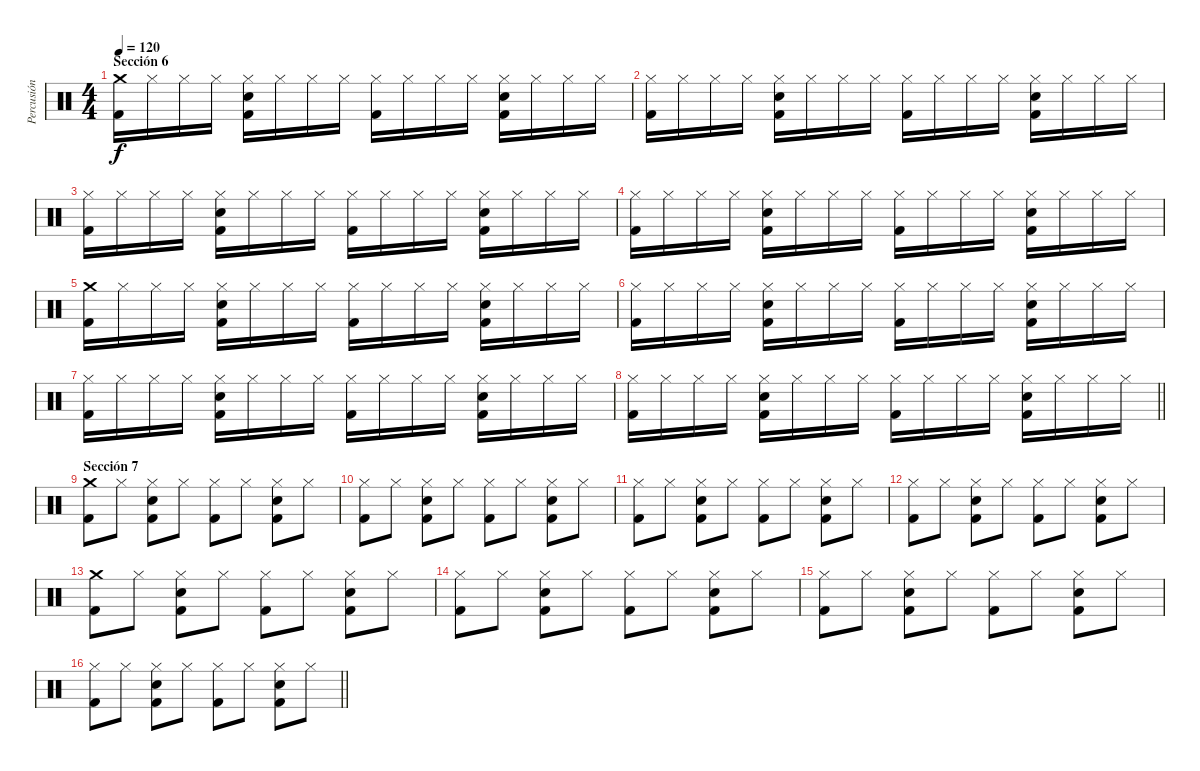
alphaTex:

\track ("Percusión" "Percusión") {instrument percussion}
\staff {score}
\articulation defaults
\ts (4 4)
\section ("" "Sección 6")
\tempo 120
\clef neutral
\ks c
("Kick (hit) 2" "Crash medium (hit)").16{dy f} "Hi-Hat (closed)".16 "Hi-Hat (closed)".16 "Hi-Hat (closed)".16 ("Kick (hit) 2" "Hi-Hat (closed)" "Electric Snare (hit)").16 "Hi-Hat (closed)".16 "Hi-Hat (closed)".16 "Hi-Hat (closed)".16 ("Kick (hit) 2" "Hi-Hat (closed)").16 "Hi-Hat (closed)".16 "Hi-Hat (closed)".16 "Hi-Hat (closed)".16 ("Kick (hit) 2" "Hi-Hat (closed)" "Electric Snare (hit)").16 "Hi-Hat (closed)".16 "Hi-Hat (closed)".16 "Hi-Hat (closed)".16 |
("Kick (hit) 2" "Hi-Hat (closed)").16 "Hi-Hat (closed)".16 "Hi-Hat (closed)".16 "Hi-Hat (closed)".16 ("Kick (hit) 2" "Hi-Hat (closed)" "Electric Snare (hit)").16 "Hi-Hat (closed)".16 "Hi-Hat (closed)".16 "Hi-Hat (closed)".16 ("Kick (hit) 2" "Hi-Hat (closed)").16 "Hi-Hat (closed)".16 "Hi-Hat (closed)".16 "Hi-Hat (closed)".16 ("Kick (hit) 2" "Hi-Hat (closed)" "Electric Snare (hit)").16 "Hi-Hat (closed)".16 "Hi-Hat (closed)".16 "Hi-Hat (closed)".16 |
("Kick (hit) 2" "Hi-Hat (closed)").16 "Hi-Hat (closed)".16 "Hi-Hat (closed)".16 "Hi-Hat (closed)".16 ("Kick (hit) 2" "Hi-Hat (closed)" "Electric Snare (hit)").16 "Hi-Hat (closed)".16 "Hi-Hat (closed)".16 "Hi-Hat (closed)".16 ("Kick (hit) 2" "Hi-Hat (closed)").16 "Hi-Hat (closed)".16 "Hi-Hat (closed)".16 "Hi-Hat (closed)".16 ("Kick (hit) 2" "Hi-Hat (closed)" "Electric Snare (hit)").16 "Hi-Hat (closed)".16 "Hi-Hat (closed)".16 "Hi-Hat (closed)".16 |
("Kick (hit) 2" "Hi-Hat (closed)").16 "Hi-Hat (closed)".16 "Hi-Hat (closed)".16 "Hi-Hat (closed)".16 ("Kick (hit) 2" "Hi-Hat (closed)" "Electric Snare (hit)").16 "Hi-Hat (closed)".16 "Hi-Hat (closed)".16 "Hi-Hat (closed)".16 ("Kick (hit) 2" "Hi-Hat (closed)").16 "Hi-Hat (closed)".16 "Hi-Hat (closed)".16 "Hi-Hat (closed)".16 ("Kick (hit) 2" "Hi-Hat (closed)" "Electric Snare (hit)").16 "Hi-Hat (closed)".16 "Hi-Hat (closed)".16 "Hi-Hat (closed)".16 |
("Kick (hit) 2" "Crash medium (hit)").16 "Hi-Hat (closed)".16 "Hi-Hat (closed)".16 "Hi-Hat (closed)".16 ("Kick (hit) 2" "Hi-Hat (closed)" "Electric Snare (hit)").16 "Hi-Hat (closed)".16 "Hi-Hat (closed)".16 "Hi-Hat (closed)".16 ("Kick (hit) 2" "Hi-Hat (closed)").16 "Hi-Hat (closed)".16 "Hi-Hat (closed)".16 "Hi-Hat (closed)".16 ("Kick (hit) 2" "Hi-Hat (closed)" "Electric Snare (hit)").16 "Hi-Hat (closed)".16 "Hi-Hat (closed)".16 "Hi-Hat (closed)".16 |
("Kick (hit) 2" "Hi-Hat (closed)").16 "Hi-Hat (closed)".16 "Hi-Hat (closed)".16 "Hi-Hat (closed)".16 ("Kick (hit) 2" "Hi-Hat (closed)" "Electric Snare (hit)").16 "Hi-Hat (closed)".16 "Hi-Hat (closed)".16 "Hi-Hat (closed)".16 ("Kick (hit) 2" "Hi-Hat (closed)").16 "Hi-Hat (closed)".16 "Hi-Hat (closed)".16 "Hi-Hat (closed)".16 ("Kick (hit) 2" "Hi-Hat (closed)" "Electric Snare (hit)").16 "Hi-Hat (closed)".16 "Hi-Hat (closed)".16 "Hi-Hat (closed)".16 |
("Kick (hit) 2" "Hi-Hat (closed)").16 "Hi-Hat (closed)".16 "Hi-Hat (closed)".16 "Hi-Hat (closed)".16 ("Kick (hit) 2" "Hi-Hat (closed)" "Electric Snare (hit)").16 "Hi-Hat (closed)".16 "Hi-Hat (closed)".16 "Hi-Hat (closed)".16 ("Kick (hit) 2" "Hi-Hat (closed)").16 "Hi-Hat (closed)".16 "Hi-Hat (closed)".16 "Hi-Hat (closed)".16 ("Kick (hit) 2" "Hi-Hat (closed)" "Electric Snare (hit)").16 "Hi-Hat (closed)".16 "Hi-Hat (closed)".16 "Hi-Hat (closed)".16 |
\barLineRight lightlight
("Kick (hit) 2" "Hi-Hat (closed)").16 "Hi-Hat (closed)".16 "Hi-Hat (closed)".16 "Hi-Hat (closed)".16 ("Kick (hit) 2" "Hi-Hat (closed)" "Electric Snare (hit)").16 "Hi-Hat (closed)".16 "Hi-Hat (closed)".16 "Hi-Hat (closed)".16 ("Kick (hit) 2" "Hi-Hat (closed)").16 "Hi-Hat (closed)".16 "Hi-Hat (closed)".16 "Hi-Hat (closed)".16 ("Kick (hit) 2" "Hi-Hat (closed)" "Electric Snare (hit)").16 "Hi-Hat (closed)".16 "Hi-Hat (closed)".16 "Hi-Hat (closed)".16 |
\section ("" "Sección 7")
("Kick (hit) 2" "Crash medium (hit)").8 "Hi-Hat (closed)".8 ("Kick (hit) 2" "Hi-Hat (closed)" "Electric Snare (hit)").8 "Hi-Hat (closed)".8 ("Kick (hit) 2" "Hi-Hat (closed)").8 "Hi-Hat (closed)".8 ("Kick (hit) 2" "Hi-Hat (closed)" "Electric Snare (hit)").8 "Hi-Hat (closed)".8 |
("Kick (hit) 2" "Hi-Hat (closed)").8 "Hi-Hat (closed)".8 ("Kick (hit) 2" "Hi-Hat (closed)" "Electric Snare (hit)").8 "Hi-Hat (closed)".8 ("Kick (hit) 2" "Hi-Hat (closed)").8 "Hi-Hat (closed)".8 ("Kick (hit) 2" "Hi-Hat (closed)" "Electric Snare (hit)").8 "Hi-Hat (closed)".8 |
("Kick (hit) 2" "Hi-Hat (closed)").8 "Hi-Hat (closed)".8 ("Kick (hit) 2" "Hi-Hat (closed)" "Electric Snare (hit)").8 "Hi-Hat (closed)".8 ("Kick (hit) 2" "Hi-Hat (closed)").8 "Hi-Hat (closed)".8 ("Kick (hit) 2" "Hi-Hat (closed)" "Electric Snare (hit)").8 "Hi-Hat (closed)".8 |
("Kick (hit) 2" "Hi-Hat (closed)").8 "Hi-Hat (closed)".8 ("Kick (hit) 2" "Hi-Hat (closed)" "Electric Snare (hit)").8 "Hi-Hat (closed)".8 ("Kick (hit) 2" "Hi-Hat (closed)").8 "Hi-Hat (closed)".8 ("Kick (hit) 2" "Hi-Hat (closed)" "Electric Snare (hit)").8 "Hi-Hat (closed)".8 |
("Kick (hit) 2" "Crash medium (hit)").8 "Hi-Hat (closed)".8 ("Kick (hit) 2" "Hi-Hat (closed)" "Electric Snare (hit)").8 "Hi-Hat (closed)".8 ("Kick (hit) 2" "Hi-Hat (closed)").8 "Hi-Hat (closed)".8 ("Kick (hit) 2" "Hi-Hat (closed)" "Electric Snare (hit)").8 "Hi-Hat (closed)".8 |
("Kick (hit) 2" "Hi-Hat (closed)").8 "Hi-Hat (closed)".8 ("Kick (hit) 2" "Hi-Hat (closed)" "Electric Snare (hit)").8 "Hi-Hat (closed)".8 ("Kick (hit) 2" "Hi-Hat (closed)").8 "Hi-Hat (closed)".8 ("Kick (hit) 2" "Hi-Hat (closed)" "Electric Snare (hit)").8 "Hi-Hat (closed)".8 |
("Kick (hit) 2" "Hi-Hat (closed)").8 "Hi-Hat (closed)".8 ("Kick (hit) 2" "Hi-Hat (closed)" "Electric Snare (hit)").8 "Hi-Hat (closed)".8 ("Kick (hit) 2" "Hi-Hat (closed)").8 "Hi-Hat (closed)".8 ("Kick (hit) 2" "Hi-Hat (closed)" "Electric Snare (hit)").8 "Hi-Hat (closed)".8 |
\barLineRight lightlight
("Kick (hit) 2" "Hi-Hat (closed)").8 "Hi-Hat (closed)".8 ("Kick (hit) 2" "Hi-Hat (closed)" "Electric Snare (hit)").8 "Hi-Hat (closed)".8 ("Kick (hit) 2" "Hi-Hat (closed)").8 "Hi-Hat (closed)".8 ("Kick (hit) 2" "Hi-Hat (closed)" "Electric Snare (hit)").8 "Hi-Hat (closed)".8
